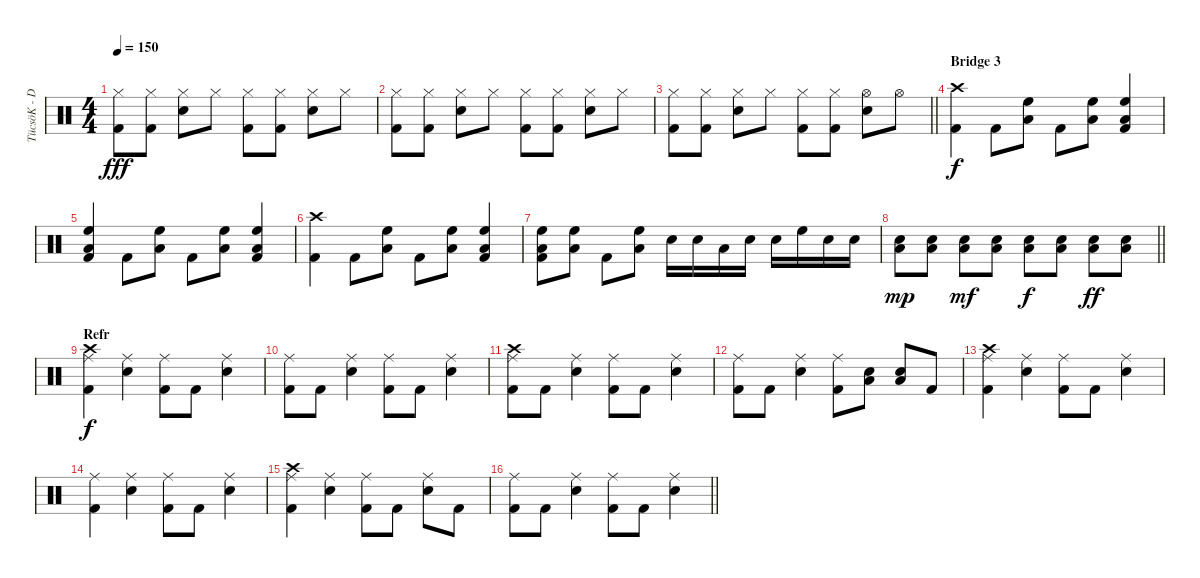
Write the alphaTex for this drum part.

\track ("TücsöK - Dob" "TücsöK - D") {instrument percussion}
\staff {score}
\articulation defaults
\ts (4 4)
\tempo 150
\clef neutral
\ks c
("Hi-Hat (closed)" "Kick (hit) 2").8{dy fff} ("Hi-Hat (closed)" "Kick (hit) 2").8 ("Hi-Hat (closed)" "Snare (hit) 2").8 "Hi-Hat (closed)".8 ("Hi-Hat (closed)" "Kick (hit) 2").8 ("Hi-Hat (closed)" "Kick (hit) 2").8 ("Hi-Hat (closed)" "Snare (hit) 2").8 "Hi-Hat (closed)".8 |
("Hi-Hat (closed)" "Kick (hit) 2").8 ("Hi-Hat (closed)" "Kick (hit) 2").8 ("Hi-Hat (closed)" "Snare (hit) 2").8 "Hi-Hat (closed)".8 ("Hi-Hat (closed)" "Kick (hit) 2").8 ("Hi-Hat (closed)" "Kick (hit) 2").8 ("Hi-Hat (closed)" "Snare (hit) 2").8 "Hi-Hat (closed)".8 |
\barLineRight lightlight
("Hi-Hat (closed)" "Kick (hit) 2").8 ("Hi-Hat (closed)" "Kick (hit) 2").8 ("Hi-Hat (closed)" "Snare (hit) 2").8 "Hi-Hat (closed)".8 ("Hi-Hat (closed)" "Kick (hit) 2").8 ("Hi-Hat (closed)" "Kick (hit) 2").8 ("Hi-Hat (open)" "Snare (hit) 2").8 "Hi-Hat (open)".8 |
\section ("" "Bridge 3")
("Crash high (hit)" "Kick (hit) 2").4{dy f} "Kick (hit) 2".8 ("High Floor Tom (hit)" "Low Tom (hit)").8 "Kick (hit) 2".8 ("High Floor Tom (hit)" "Low Tom (hit)").8 ("High Floor Tom (hit)" "Low Tom (hit)" "Kick (hit) 2").4 |
("High Floor Tom (hit)" "Low Tom (hit)" "Kick (hit) 2").4 "Kick (hit) 2".8 ("High Floor Tom (hit)" "Low Tom (hit)").8 "Kick (hit) 2".8 ("High Floor Tom (hit)" "Low Tom (hit)").8 ("High Floor Tom (hit)" "Low Tom (hit)" "Kick (hit) 2").4 |
("Crash high (hit)" "Kick (hit) 2").4 "Kick (hit) 2".8 ("High Floor Tom (hit)" "Low Tom (hit)").8 "Kick (hit) 2".8 ("High Floor Tom (hit)" "Low Tom (hit)").8 ("High Floor Tom (hit)" "Low Tom (hit)" "Kick (hit) 2").4 |
("High Floor Tom (hit)" "Low Tom (hit)" "Kick (hit) 2").8 ("High Floor Tom (hit)" "Low Tom (hit)").8 "Kick (hit) 2".8 ("High Floor Tom (hit)" "Low Tom (hit)").8 "Snare (hit) 2".16 "Snare (hit) 2".16 "Low Tom (hit)".16 "Snare (hit) 2".16 "Snare (hit) 2".16 "High Floor Tom (hit)".16 "Snare (hit) 2".16 "Snare (hit) 2".16 |
\barLineRight lightlight
("Snare (hit) 2" "Low Tom (hit)").8{dy mp} ("Snare (hit) 2" "Low Tom (hit)").8 ("Snare (hit) 2" "Low Tom (hit)").8{dy mf} ("Snare (hit) 2" "Low Tom (hit)").8 ("Snare (hit) 2" "Low Tom (hit)").8{dy f} ("Snare (hit) 2" "Low Tom (hit)").8 ("Snare (hit) 2" "Low Tom (hit)").8{dy ff} ("Snare (hit) 2" "Low Tom (hit)").8 |
\section ("" "Refr")
("Crash high (hit)" "Ride (middle)" "Kick (hit) 2").4{dy f} ("Ride (middle)" "Snare (hit) 2").4 ("Ride (middle)" "Kick (hit) 2").8 "Kick (hit) 2".8 ("Ride (middle)" "Snare (hit) 2").4 |
("Ride (middle)" "Kick (hit) 2").8 "Kick (hit) 2".8 ("Ride (middle)" "Snare (hit) 2").4 ("Ride (middle)" "Kick (hit) 2").8 "Kick (hit) 2".8 ("Ride (middle)" "Snare (hit) 2").4 |
("Crash high (hit)" "Ride (middle)" "Kick (hit) 2").8 "Kick (hit) 2".8 ("Ride (middle)" "Snare (hit) 2").4 ("Ride (middle)" "Kick (hit) 2").8 "Kick (hit) 2".8 ("Ride (middle)" "Snare (hit) 2").4 |
("Ride (middle)" "Kick (hit) 2").8 "Kick (hit) 2".8 ("Ride (middle)" "Snare (hit) 2").4 ("Ride (middle)" "Kick (hit) 2").8 ("Snare (hit) 2" "Low Tom (hit)").8 ("Snare (hit) 2" "Low Tom (hit)").8 "Kick (hit) 2".8 |
("Crash high (hit)" "Ride (middle)" "Kick (hit) 2").4 ("Ride (middle)" "Snare (hit) 2").4 ("Ride (middle)" "Kick (hit) 2").8 "Kick (hit) 2".8 ("Ride (middle)" "Snare (hit) 2").4 |
("Ride (middle)" "Kick (hit) 2").4 ("Ride (middle)" "Snare (hit) 2").4 ("Ride (middle)" "Kick (hit) 2").8 "Kick (hit) 2".8 ("Ride (middle)" "Snare (hit) 2").4 |
("Crash high (hit)" "Ride (middle)" "Kick (hit) 2").4 ("Ride (middle)" "Snare (hit) 2").4 ("Ride (middle)" "Kick (hit) 2").8 "Kick (hit) 2".8 ("Ride (middle)" "Snare (hit) 2").8 "Kick (hit) 2".8 |
\barLineRight lightlight
("Ride (middle)" "Kick (hit) 2").8 "Kick (hit) 2".8 ("Ride (middle)" "Snare (hit) 2").4 ("Ride (middle)" "Kick (hit) 2").8 "Kick (hit) 2".8 ("Ride (middle)" "Snare (hit) 2").4
